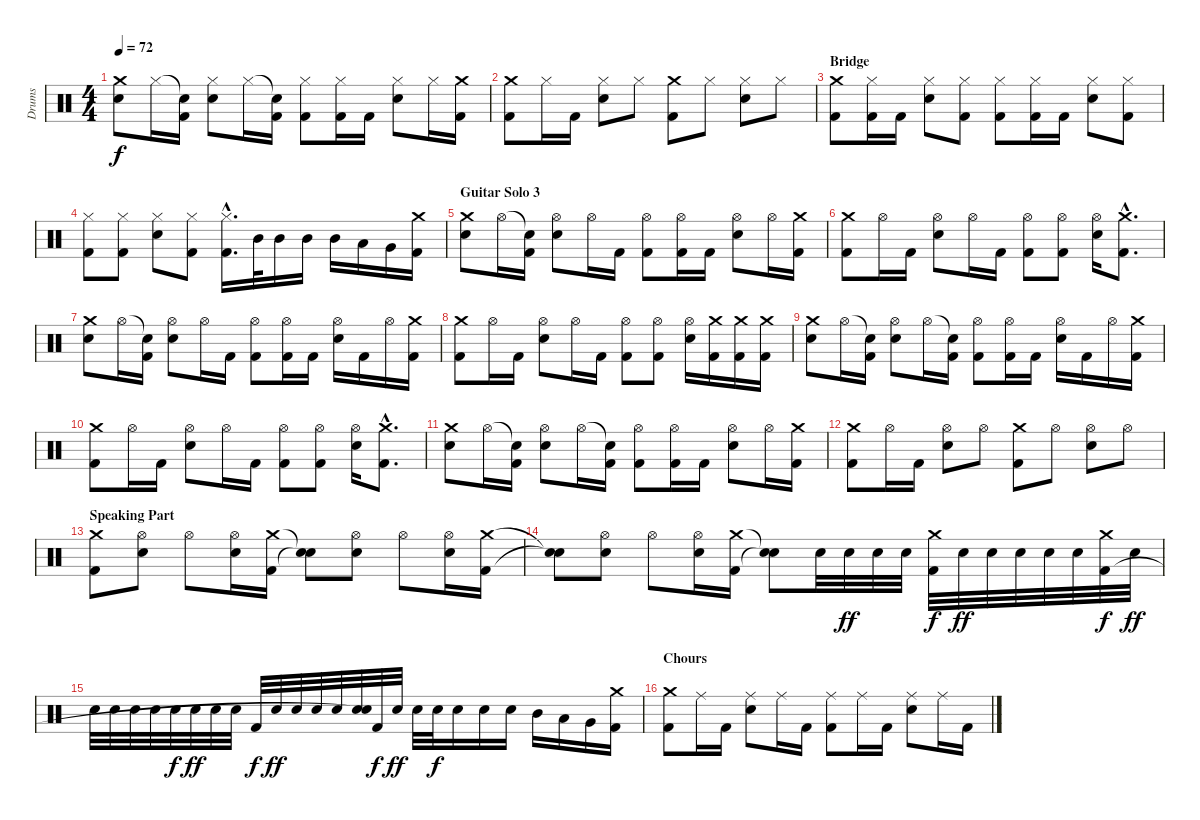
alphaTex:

\track ("Drums" "Drums") {instrument percussion}
\staff {score}
\articulation defaults
\ts (4 4)
\tempo 72
\clef neutral
\ks c
("Crash medium (hit)" "Snare (hit) 2").8{dy f} "Hi-Hat (closed)".16 ("Snare (hit)"{t} "Kick (hit) 2").16 ("Hi-Hat (closed)" "Snare (hit) 2").8 "Hi-Hat (closed)".16 ("Snare (hit)"{t} "Kick (hit) 2").16 ("Hi-Hat (closed)" "Kick (hit) 2").8 ("Hi-Hat (closed)" "Kick (hit) 2").16 "Kick (hit) 2".16 ("Hi-Hat (closed)" "Snare (hit) 2").8 "Hi-Hat (closed)".16 ("Crash medium (hit)" "Kick (hit) 2").16 |
("Crash medium (hit)" "Kick (hit) 2").8 "Hi-Hat (closed)".16 "Kick (hit) 2".16 ("Hi-Hat (closed)" "Snare (hit) 2").8 "Hi-Hat (closed)".8 ("Crash medium (hit)" "Kick (hit) 2").8 "Hi-Hat (closed)".8 ("Hi-Hat (closed)" "Snare (hit) 2").8 "Hi-Hat (closed)".8 |
\section ("" "Bridge")
("Crash medium (hit)" "Kick (hit) 2").8 ("Hi-Hat (closed)" "Kick (hit) 2").16 "Kick (hit) 2".16 ("Hi-Hat (closed)" "Snare (hit) 2").8 ("Hi-Hat (closed)" "Kick (hit) 2").8 ("Hi-Hat (closed)" "Kick (hit) 2").8 ("Hi-Hat (closed)" "Kick (hit) 2").16 "Kick (hit) 2".16 ("Hi-Hat (closed)" "Snare (hit) 2").8 ("Hi-Hat (closed)" "Kick (hit) 2").8 |
("Hi-Hat (closed)" "Kick (hit) 2").8 ("Hi-Hat (closed)" "Kick (hit) 2").8 ("Hi-Hat (closed)" "Snare (hit) 2").8 ("Hi-Hat (closed)" "Kick (hit) 2").8 ("Hi-Hat (closed)"{hac} "Kick (hit) 2"{hac}).16{d} "Mid Tom (hit)".32 "Mid Tom (hit)".16 "Mid Tom (hit)".16 "Mid Tom (hit)".16 "Low Tom (hit)".16 "Very Low Tom (hit)".16 ("Crash medium (hit)" "Kick (hit) 2").16 |
\section ("" "Guitar Solo 3")
("Crash medium (hit)" "Snare (hit) 2").8 "Hi-Hat (open)".16 ("Snare (hit)"{t} "Kick (hit) 2").16 ("Hi-Hat (open)" "Snare (hit) 2").8 "Hi-Hat (open)".16 "Kick (hit) 2".16 ("Hi-Hat (open)" "Kick (hit) 2").8 ("Hi-Hat (open)" "Kick (hit) 2").16 "Kick (hit) 2".16 ("Hi-Hat (open)" "Snare (hit) 2").8 "Hi-Hat (open)".16 ("Crash medium (hit)" "Kick (hit) 2").16 |
("Crash medium (hit)" "Kick (hit) 2").8 "Hi-Hat (open)".16 "Kick (hit) 2".16 ("Hi-Hat (open)" "Snare (hit) 2").8 "Hi-Hat (open)".16 "Kick (hit) 2".16 ("Hi-Hat (open)" "Kick (hit) 2").8 ("Hi-Hat (open)" "Kick (hit) 2").8 ("Hi-Hat (open)" "Snare (hit) 2").16 ("Crash medium (hit)"{hac} "Kick (hit) 2"{hac}).8{d} |
("Crash medium (hit)" "Snare (hit) 2").8 "Hi-Hat (open)".16 ("Snare (hit)"{t} "Kick (hit) 2").16 ("Hi-Hat (open)" "Snare (hit) 2").8 "Hi-Hat (open)".16 "Kick (hit) 2".16 ("Hi-Hat (open)" "Kick (hit) 2").8 ("Hi-Hat (open)" "Kick (hit) 2").16 "Kick (hit) 2".16 ("Hi-Hat (open)" "Snare (hit) 2").16 "Kick (hit) 2".16 "Hi-Hat (open)".16 ("Crash medium (hit)" "Kick (hit) 2").16 |
("Crash medium (hit)" "Kick (hit) 2").8 "Hi-Hat (open)".16 "Kick (hit) 2".16 ("Hi-Hat (open)" "Snare (hit) 2").8 "Hi-Hat (open)".16 "Kick (hit) 2".16 ("Hi-Hat (open)" "Kick (hit) 2").8 ("Hi-Hat (open)" "Kick (hit) 2").8 ("Hi-Hat (open)" "Snare (hit) 2").16 ("Crash medium (hit)" "Kick (hit) 2").16 ("Crash medium (hit)" "Kick (hit) 2").16 ("Crash medium (hit)" "Kick (hit) 2").16 |
("Crash medium (hit)" "Snare (hit) 2").8 "Hi-Hat (open)".16 ("Snare (hit)"{t} "Kick (hit) 2").16 ("Hi-Hat (open)" "Snare (hit) 2").8 "Hi-Hat (open)".16 ("Snare (hit)"{t} "Kick (hit) 2").16 ("Hi-Hat (open)" "Kick (hit) 2").8 ("Hi-Hat (open)" "Kick (hit) 2").16 "Kick (hit) 2".16 ("Hi-Hat (open)" "Snare (hit) 2").16 "Kick (hit) 2".16 "Hi-Hat (open)".16 ("Crash medium (hit)" "Kick (hit) 2").16 |
("Crash medium (hit)" "Kick (hit) 2").8 "Hi-Hat (open)".16 "Kick (hit) 2".16 ("Hi-Hat (open)" "Snare (hit) 2").8 "Hi-Hat (open)".16 "Kick (hit) 2".16 ("Hi-Hat (open)" "Kick (hit) 2").8 ("Hi-Hat (open)" "Kick (hit) 2").8 ("Hi-Hat (open)" "Snare (hit) 2").16 ("Crash medium (hit)"{hac} "Kick (hit) 2"{hac}).8{d} |
("Crash medium (hit)" "Snare (hit) 2").8 "Hi-Hat (open)".16 ("Snare (hit)"{t} "Kick (hit) 2").16 ("Hi-Hat (open)" "Snare (hit) 2").8 "Hi-Hat (open)".16 ("Snare (hit)"{t} "Kick (hit) 2").16 ("Hi-Hat (open)" "Kick (hit) 2").8 ("Hi-Hat (open)" "Kick (hit) 2").16 "Kick (hit) 2".16 ("Hi-Hat (open)" "Snare (hit) 2").8 "Hi-Hat (open)".16 ("Crash medium (hit)" "Kick (hit) 2").16 |
("Crash medium (hit)" "Kick (hit) 2").8 "Hi-Hat (open)".16 "Kick (hit) 2".16 ("Hi-Hat (open)" "Snare (hit) 2").8 "Hi-Hat (open)".8 ("Crash medium (hit)" "Kick (hit) 2").8 "Hi-Hat (open)".8 ("Hi-Hat (open)" "Snare (hit) 2").8 "Hi-Hat (open)".8 |
\section ("" "Speaking Part")
("Crash medium (hit)" "Kick (hit) 2").8 ("Hi-Hat (open)" "Snare (hit) 2").8 "Hi-Hat (open)".8 ("Hi-Hat (open)" "Snare (hit) 2").16 ("Crash medium (hit)" "Kick (hit) 2").16 ("Snare (hit)"{t} "Snare (hit)"{t}).8 ("Hi-Hat (open)" "Snare (hit) 2").8 "Hi-Hat (open)".8 ("Hi-Hat (open)" "Snare (hit) 2").16 ("Crash medium (hit)" "Kick (hit) 2").16 |
("Snare (hit)"{t} "Snare (hit)"{t}).8 ("Hi-Hat (open)" "Snare (hit) 2").8 "Hi-Hat (open)".8 ("Hi-Hat (open)" "Snare (hit) 2").16 ("Crash medium (hit)" "Kick (hit) 2").16 ("Snare (hit)"{t} "Snare (hit)"{t}).8 "Snare (hit) 2".32 "Snare (hit) 2".32{dy ff} "Snare (hit) 2".32 "Snare (hit) 2".32 ("Crash medium (hit)" "Kick (hit) 2").32{dy f} "Snare (hit) 2".32{dy ff} "Snare (hit) 2".32 "Snare (hit) 2".32 "Snare (hit) 2".32 "Snare (hit) 2".32 ("Crash medium (hit)" "Kick (hit) 2").32{dy f} "Snare (hit) 2".32{dy ff} |
"Snare (hit) 2".32 "Snare (hit) 2".32 "Snare (hit) 2".32 "Snare (hit) 2".32 "Snare (hit) 2".32{dy f} "Snare (hit) 2".32{dy ff} "Snare (hit) 2".32 "Snare (hit) 2".32 "Kick (hit) 2".32{dy f} "Snare (hit) 2".32{dy ff} "Snare (hit) 2".32 "Snare (hit) 2".32 "Snare (hit) 2".32 ("Snare (hit) 2" "Snare (hit)"{t}).32 "Kick (hit) 2".32{dy f} "Snare (hit) 2".32{dy ff} "Snare (hit) 2".32 "Snare (hit) 2".32{dy f} "Snare (hit) 2".16 "Snare (hit) 2".16 "Snare (hit) 2".16 "Mid Tom (hit)".16 "Low Tom (hit)".16 "Very Low Tom (hit)".16 ("Crash medium (hit)" "Kick (hit) 2").16 |
\section ("" "Chours")
("Crash medium (hit)" "Kick (hit) 2").8 "Ride (middle)".16 "Kick (hit) 2".16 ("Ride (middle)" "Snare (hit) 2").8 "Ride (middle)".16 "Kick (hit) 2".16 ("Ride (middle)" "Kick (hit) 2").8 "Ride (middle)".16 "Kick (hit) 2".16 ("Ride (middle)" "Snare (hit) 2").8 "Ride (middle)".16 "Kick (hit) 2".16
